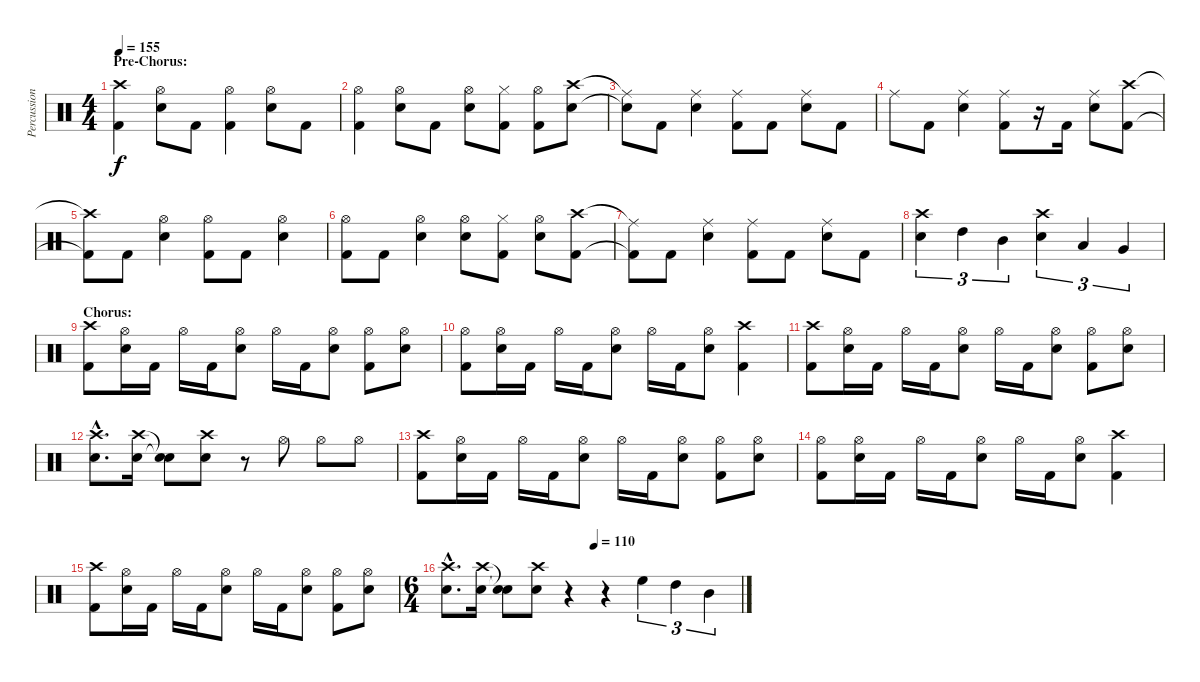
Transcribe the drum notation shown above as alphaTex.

\track ("Percussion" "Percussion") {instrument percussion}
\staff {score}
\articulation defaults
\ts (4 4)
\section ("" "Pre-Chorus:")
\tempo 155
\clef neutral
\ks c
("Crash high (hit)" "Kick (hit) 2").4{dy f} ("Hi-Hat (open)" "Electric Snare (hit)").8 "Kick (hit) 2".8 ("Hi-Hat (open)" "Kick (hit) 2").4 ("Hi-Hat (open)" "Electric Snare (hit)").8 "Kick (hit) 2".8 |
("Hi-Hat (open)" "Kick (hit) 2").4 ("Hi-Hat (open)" "Electric Snare (hit)").8 "Kick (hit) 2".8 ("Hi-Hat (open)" "Electric Snare (hit)").8 ("Hi-Hat (closed)" "Kick (hit) 2").8 ("Hi-Hat (open)" "Kick (hit) 2").8 ("Crash high (hit)" "Electric Snare (hit)").8 |
("Ride (middle)"{t} "Snare (hit)"{t}).8 "Kick (hit) 2".8 ("Ride (middle)" "Electric Snare (hit)").4 ("Ride (middle)" "Kick (hit) 2").8 "Kick (hit) 2".8 ("Ride (middle)" "Electric Snare (hit)").8 "Kick (hit) 2".8 |
"Ride (middle)".8 "Kick (hit) 2".8 ("Ride (middle)" "Electric Snare (hit)").4 ("Ride (middle)" "Kick (hit) 2").8 r.16 "Kick (hit) 2".16 ("Ride (middle)" "Electric Snare (hit)").8 ("Crash high (hit)" "Kick (hit) 2").8 |
("Crash high (hit)"{t} "Kick (hit) 2"{t}).8 "Kick (hit) 2".8 ("Hi-Hat (open)" "Electric Snare (hit)").4 ("Hi-Hat (open)" "Kick (hit) 2").8 "Kick (hit) 2".8 ("Hi-Hat (open)" "Electric Snare (hit)").4 |
("Hi-Hat (open)" "Kick (hit) 2").8 "Kick (hit) 2".8 ("Hi-Hat (open)" "Electric Snare (hit)").4 ("Hi-Hat (open)" "Electric Snare (hit)").8 ("Hi-Hat (closed)" "Kick (hit) 2").8 ("Hi-Hat (open)" "Electric Snare (hit)").8 ("Crash high (hit)" "Kick (hit) 2").8 |
("Ride (middle)"{t} "Kick (hit) 2"{t}).8 "Kick (hit) 2".8 ("Ride (middle)" "Electric Snare (hit)").4 ("Ride (middle)" "Kick (hit) 2").8 "Kick (hit) 2".8 ("Ride (middle)" "Electric Snare (hit)").8 "Kick (hit) 2".8 |
("Crash high (hit)" "Electric Snare (hit)").4{tu (3 2)} "High Tom (hit)".4{tu (3 2)} "Mid Tom (hit)".4{tu (3 2)} ("Crash high (hit)" "Electric Snare (hit)").4{tu (3 2)} "Low Tom (hit)".4{tu (3 2)} "Very Low Tom (hit)".4{tu (3 2)} |
\section ("" "Chorus:")
("Crash high (hit)" "Kick (hit) 2").8 ("Hi-Hat (open)" "Electric Snare (hit)").16 "Kick (hit) 2".16 "Hi-Hat (open)".16 "Kick (hit) 2".16 ("Hi-Hat (open)" "Electric Snare (hit)").8 "Hi-Hat (open)".16 "Kick (hit) 2".16 ("Hi-Hat (open)" "Electric Snare (hit)").8 ("Hi-Hat (open)" "Kick (hit) 2").8 ("Hi-Hat (open)" "Electric Snare (hit)").8 |
("Hi-Hat (open)" "Kick (hit) 2").8 ("Hi-Hat (open)" "Electric Snare (hit)").16 "Kick (hit) 2".16 "Hi-Hat (open)".16 "Kick (hit) 2".16 ("Hi-Hat (open)" "Electric Snare (hit)").8 "Hi-Hat (open)".16 "Kick (hit) 2".16 ("Hi-Hat (open)" "Electric Snare (hit)").8 ("Crash high (hit)" "Kick (hit) 2").4 |
("Crash high (hit)" "Kick (hit) 2").8 ("Hi-Hat (open)" "Electric Snare (hit)").16 "Kick (hit) 2".16 "Hi-Hat (open)".16 "Kick (hit) 2".16 ("Hi-Hat (open)" "Electric Snare (hit)").8 "Hi-Hat (open)".16 "Kick (hit) 2".16 ("Hi-Hat (open)" "Electric Snare (hit)").8 ("Hi-Hat (open)" "Kick (hit) 2").8 ("Hi-Hat (open)" "Electric Snare (hit)").8 |
("Crash high (hit)"{hac} "Electric Snare (hit)"{hac}).8{d} ("Crash high (hit)" "Electric Snare (hit)").16 ("Snare (hit)"{t} "Snare (hit)"{t}).8 ("Crash high (hit)" "Electric Snare (hit)").8 r.8 "Hi-Hat (open)".8 "Hi-Hat (open)".8 "Hi-Hat (open)".8 |
("Crash high (hit)" "Kick (hit) 2").8 ("Hi-Hat (open)" "Electric Snare (hit)").16 "Kick (hit) 2".16 "Hi-Hat (open)".16 "Kick (hit) 2".16 ("Hi-Hat (open)" "Electric Snare (hit)").8 "Hi-Hat (open)".16 "Kick (hit) 2".16 ("Hi-Hat (open)" "Electric Snare (hit)").8 ("Hi-Hat (open)" "Kick (hit) 2").8 ("Hi-Hat (open)" "Electric Snare (hit)").8 |
("Hi-Hat (open)" "Kick (hit) 2").8 ("Hi-Hat (open)" "Electric Snare (hit)").16 "Kick (hit) 2".16 "Hi-Hat (open)".16 "Kick (hit) 2".16 ("Hi-Hat (open)" "Electric Snare (hit)").8 "Hi-Hat (open)".16 "Kick (hit) 2".16 ("Hi-Hat (open)" "Electric Snare (hit)").8 ("Crash high (hit)" "Kick (hit) 2").4 |
("Crash high (hit)" "Kick (hit) 2").8 ("Hi-Hat (open)" "Electric Snare (hit)").16 "Kick (hit) 2".16 "Hi-Hat (open)".16 "Kick (hit) 2".16 ("Hi-Hat (open)" "Electric Snare (hit)").8 "Hi-Hat (open)".16 "Kick (hit) 2".16 ("Hi-Hat (open)" "Electric Snare (hit)").8 ("Hi-Hat (open)" "Kick (hit) 2").8 ("Hi-Hat (open)" "Electric Snare (hit)").8 |
\ts (6 4)
\tempo (110 0.5)
("Crash high (hit)"{hac} "Electric Snare (hit)"{hac}).8{d} ("Crash high (hit)" "Electric Snare (hit)").16 ("Snare (hit)"{t} "Snare (hit)"{t}).8 ("Crash high (hit)" "Electric Snare (hit)").8 r.4 r.4 "High Floor Tom (hit)".4{tu (3 2)} "High Tom (hit)".4{tu (3 2)} "Mid Tom (hit)".4{tu (3 2)}
